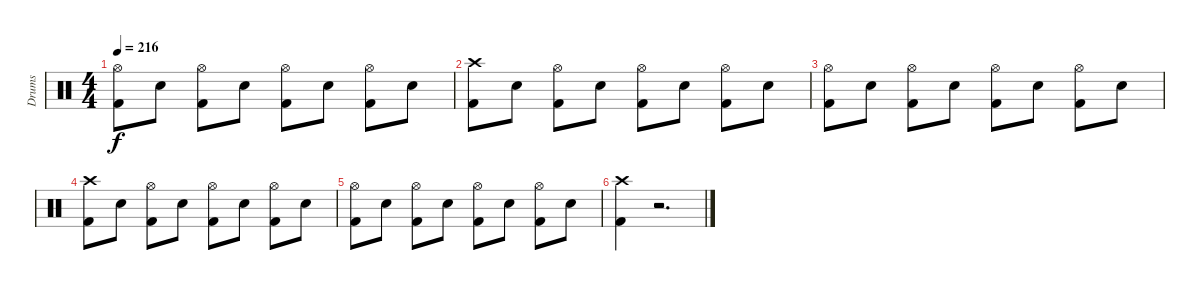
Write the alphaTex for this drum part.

\track ("Drums" "Drums") {instrument percussion}
\staff {score}
\articulation defaults
\ts (4 4)
\tempo 216
\clef neutral
\ks c
("Hi-Hat (open)" "Kick (hit) 2").8{dy f} "Electric Snare (hit)".8 ("Hi-Hat (open)" "Kick (hit) 2").8 "Electric Snare (hit)".8 ("Hi-Hat (open)" "Kick (hit) 2").8 "Electric Snare (hit)".8 ("Hi-Hat (open)" "Kick (hit) 2").8 "Electric Snare (hit)".8 |
("Crash high (hit)" "Kick (hit) 2").8 "Electric Snare (hit)".8 ("Hi-Hat (open)" "Kick (hit) 2").8 "Electric Snare (hit)".8 ("Hi-Hat (open)" "Kick (hit) 2").8 "Electric Snare (hit)".8 ("Hi-Hat (open)" "Kick (hit) 2").8 "Electric Snare (hit)".8 |
("Hi-Hat (open)" "Kick (hit) 2").8 "Electric Snare (hit)".8 ("Hi-Hat (open)" "Kick (hit) 2").8 "Electric Snare (hit)".8 ("Hi-Hat (open)" "Kick (hit) 2").8 "Electric Snare (hit)".8 ("Hi-Hat (open)" "Kick (hit) 2").8 "Electric Snare (hit)".8 |
("Crash high (hit)" "Kick (hit) 2").8 "Electric Snare (hit)".8 ("Hi-Hat (open)" "Kick (hit) 2").8 "Electric Snare (hit)".8 ("Hi-Hat (open)" "Kick (hit) 2").8 "Electric Snare (hit)".8 ("Hi-Hat (open)" "Kick (hit) 2").8 "Electric Snare (hit)".8 |
("Hi-Hat (open)" "Kick (hit) 2").8 "Electric Snare (hit)".8 ("Hi-Hat (open)" "Kick (hit) 2").8 "Electric Snare (hit)".8 ("Hi-Hat (open)" "Kick (hit) 2").8 "Electric Snare (hit)".8 ("Hi-Hat (open)" "Kick (hit) 2").8 "Electric Snare (hit)".8 |
("Crash high (hit)" "Kick (hit) 2").4 r.2{d}
